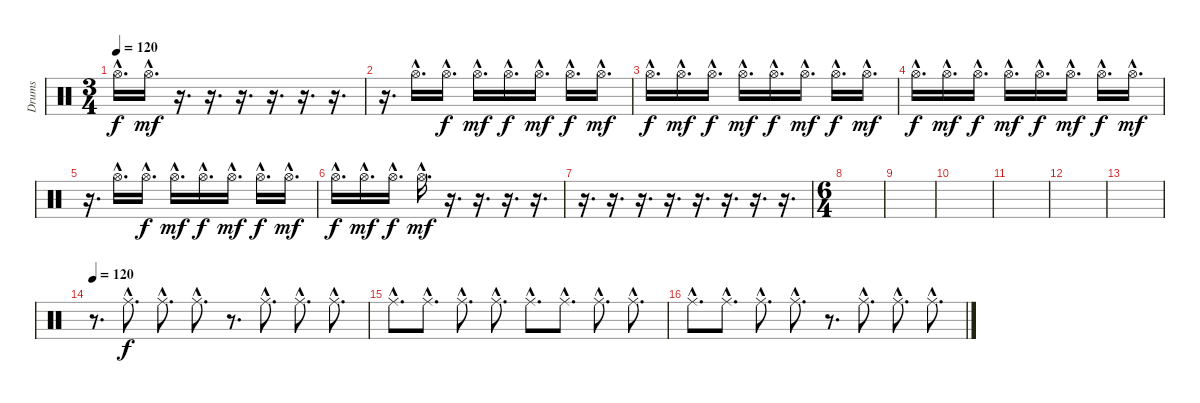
\track ("Drums" "Drums") {instrument percussion}
\staff {score}
\articulation defaults
\ts (3 4)
\tempo 120
\clef neutral
\ks c "Hi-Hat (open)"{hac}.16{d dy f} "Hi-Hat (open)"{hac}.16{d dy mf}
r.16{d} r.16{d} r.16{d} r.16{d} r.16{d} r.16{d} |
r.16{d} "Hi-Hat (open)"{hac}.16{d} "Hi-Hat (open)"{hac}.16{d dy f} "Hi-Hat (open)"{hac}.16{d dy mf} "Hi-Hat (open)"{hac}.16{d dy f} "Hi-Hat (open)"{hac}.16{d dy mf} "Hi-Hat (open)"{hac}.16{d dy f} "Hi-Hat (open)"{hac}.16{d dy mf} |
"Hi-Hat (open)"{hac}.16{d dy f} "Hi-Hat (open)"{hac}.16{d dy mf} "Hi-Hat (open)"{hac}.16{d dy f} "Hi-Hat (open)"{hac}.16{d dy mf} "Hi-Hat (open)"{hac}.16{d dy f} "Hi-Hat (open)"{hac}.16{d dy mf} "Hi-Hat (open)"{hac}.16{d dy f} "Hi-Hat (open)"{hac}.16{d dy mf} |
"Hi-Hat (open)"{hac}.16{d dy f} "Hi-Hat (open)"{hac}.16{d dy mf} "Hi-Hat (open)"{hac}.16{d dy f} "Hi-Hat (open)"{hac}.16{d dy mf} "Hi-Hat (open)"{hac}.16{d dy f} "Hi-Hat (open)"{hac}.16{d dy mf} "Hi-Hat (open)"{hac}.16{d dy f} "Hi-Hat (open)"{hac}.16{d dy mf} |
r.16{d} "Hi-Hat (open)"{hac}.16{d} "Hi-Hat (open)"{hac}.16{d dy f} "Hi-Hat (open)"{hac}.16{d dy mf} "Hi-Hat (open)"{hac}.16{d dy f} "Hi-Hat (open)"{hac}.16{d dy mf} "Hi-Hat (open)"{hac}.16{d dy f} "Hi-Hat (open)"{hac}.16{d dy mf} |
"Hi-Hat (open)"{hac}.16{d dy f} "Hi-Hat (open)"{hac}.16{d dy mf} "Hi-Hat (open)"{hac}.16{d dy f} "Hi-Hat (open)"{hac}.16{d dy mf} r.16{d} r.16{d} r.16{d} r.16{d} |
r.16{d} r.16{d} r.16{d} r.16{d} r.16{d} r.16{d} r.16{d} r.16{d} |
\ts (6 4)
\section ("" "")
|
|
|
|
|
|
\section ("" "")
\tempo 120
r.8{d} "Ride (middle)"{hac}.8{d dy f} "Ride (middle)"{hac}.8{d} "Ride (middle)"{hac}.8{d} r.8{d} "Ride (middle)"{hac}.8{d} "Ride (middle)"{hac}.8{d} "Ride (middle)"{hac}.8{d} |
"Ride (middle)"{hac}.8{d} "Ride (middle)"{hac}.8{d} "Ride (middle)"{hac}.8{d} "Ride (middle)"{hac}.8{d} "Ride (middle)"{hac}.8{d} "Ride (middle)"{hac}.8{d} "Ride (middle)"{hac}.8{d} "Ride (middle)"{hac}.8{d} |
"Ride (middle)"{hac}.8{d} "Ride (middle)"{hac}.8{d} "Ride (middle)"{hac}.8{d} "Ride (middle)"{hac}.8{d} r.8{d} "Ride (middle)"{hac}.8{d} "Ride (middle)"{hac}.8{d} "Ride (middle)"{hac}.8{d}
